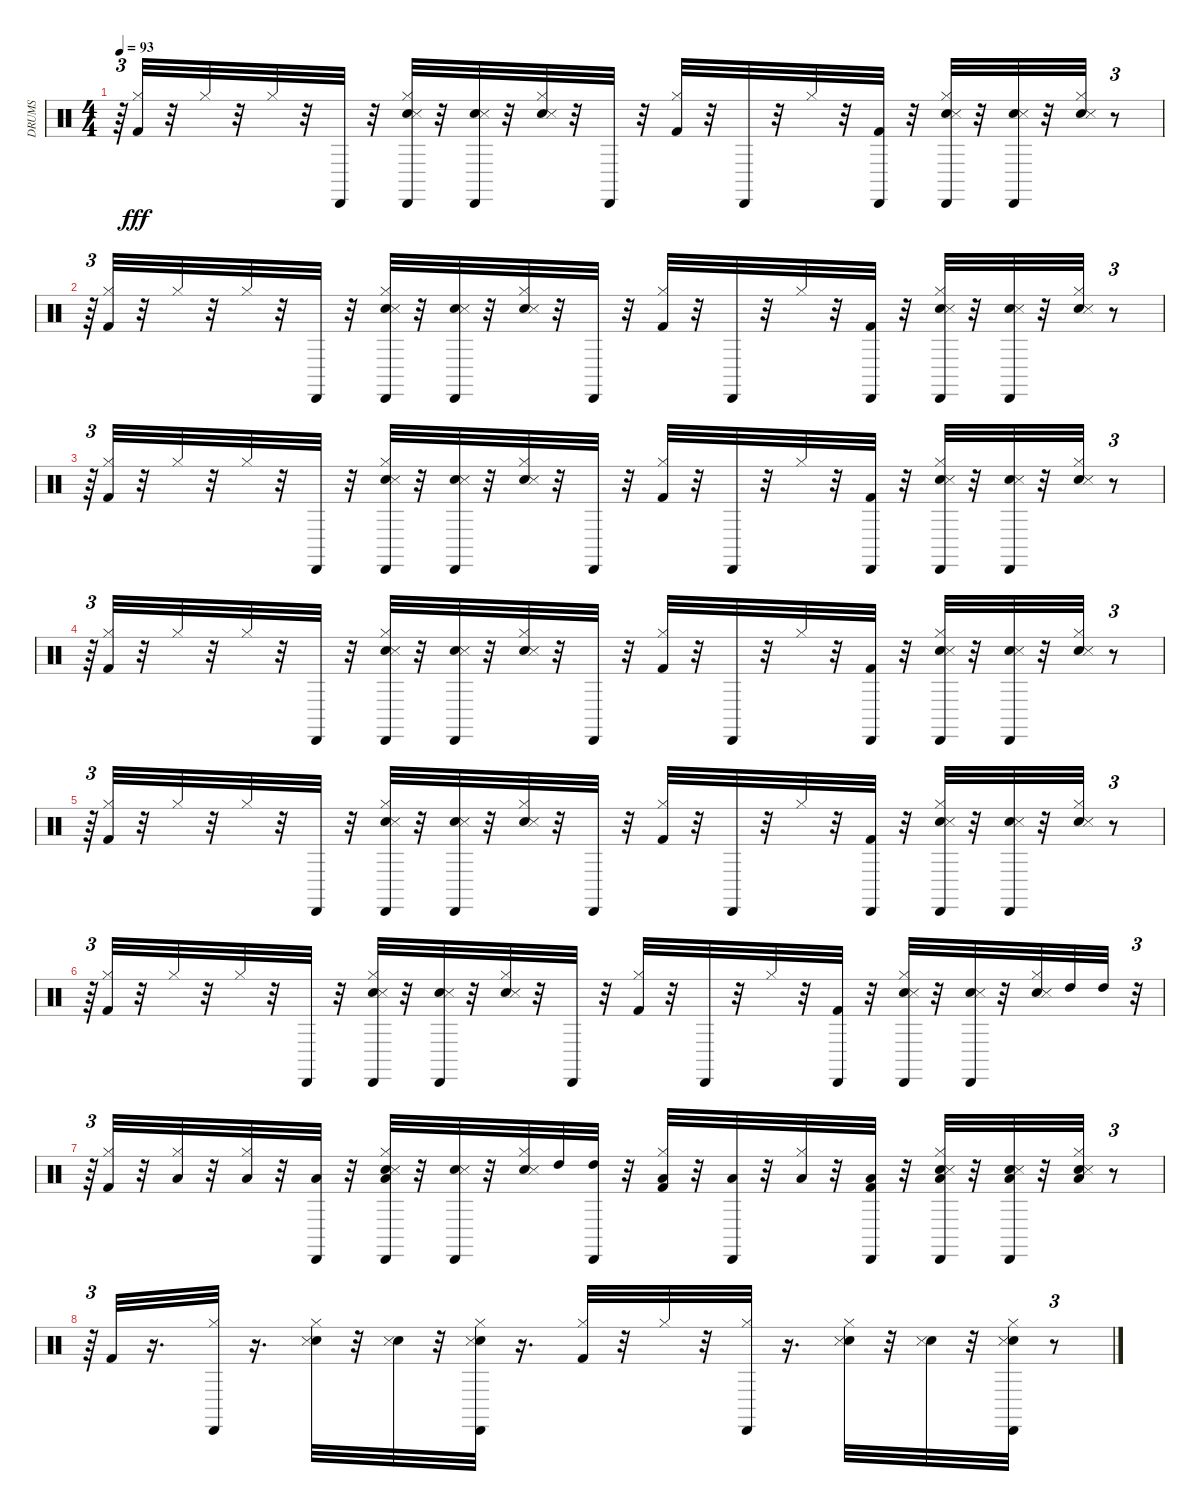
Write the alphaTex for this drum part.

\track ("DRUMS   " "DRUMS   ") {instrument percussion}
\staff {score}
\articulation defaults
\ts (4 4)
\tempo 93
\clef neutral
\ks c
r.64{tu (3 2) dy fff} ("Kick (hit) 2" "Hi-Hat (closed)").32 r.32 "Hi-Hat (closed)".32 r.32 "Hi-Hat (closed)".32 r.32 "Cabasa (hit)".32 r.32 ("Snare (hit) 2" "Hi-Hat (closed)" "Snare (side stick) 3" "Cabasa (hit)").32 r.32 ("Snare (hit) 2" "Snare (side stick) 3" "Cabasa (hit)").32 r.32 ("Snare (hit) 2" "Hi-Hat (closed)" "Snare (side stick) 3").32 r.32 "Cabasa (hit)".32 r.32 ("Kick (hit) 2" "Hi-Hat (closed)").32 r.32 "Cabasa (hit)".32 r.32 "Hi-Hat (closed)".32 r.32 ("Kick (hit) 2" "Cabasa (hit)").32 r.32 ("Snare (hit) 2" "Hi-Hat (closed)" "Snare (side stick) 3" "Cabasa (hit)").32 r.32 ("Snare (hit) 2" "Snare (side stick) 3" "Cabasa (hit)").32 r.32 ("Snare (hit) 2" "Hi-Hat (closed)" "Snare (side stick) 3").32 r.8{tu (3 2)} |
r.64{tu (3 2)} ("Kick (hit) 2" "Hi-Hat (closed)").32 r.32 "Hi-Hat (closed)".32 r.32 "Hi-Hat (closed)".32 r.32 "Cabasa (hit)".32 r.32 ("Snare (hit) 2" "Hi-Hat (closed)" "Snare (side stick) 3" "Cabasa (hit)").32 r.32 ("Snare (hit) 2" "Snare (side stick) 3" "Cabasa (hit)").32 r.32 ("Snare (hit) 2" "Hi-Hat (closed)" "Snare (side stick) 3").32 r.32 "Cabasa (hit)".32 r.32 ("Kick (hit) 2" "Hi-Hat (closed)").32 r.32 "Cabasa (hit)".32 r.32 "Hi-Hat (closed)".32 r.32 ("Kick (hit) 2" "Cabasa (hit)").32 r.32 ("Snare (hit) 2" "Hi-Hat (closed)" "Snare (side stick) 3" "Cabasa (hit)").32 r.32 ("Snare (hit) 2" "Snare (side stick) 3" "Cabasa (hit)").32 r.32 ("Snare (hit) 2" "Hi-Hat (closed)" "Snare (side stick) 3").32 r.8{tu (3 2)} |
r.64{tu (3 2)} ("Kick (hit) 2" "Hi-Hat (closed)").32 r.32 "Hi-Hat (closed)".32 r.32 "Hi-Hat (closed)".32 r.32 "Cabasa (hit)".32 r.32 ("Snare (hit) 2" "Hi-Hat (closed)" "Snare (side stick) 3" "Cabasa (hit)").32 r.32 ("Snare (hit) 2" "Snare (side stick) 3" "Cabasa (hit)").32 r.32 ("Snare (hit) 2" "Hi-Hat (closed)" "Snare (side stick) 3").32 r.32 "Cabasa (hit)".32 r.32 ("Kick (hit) 2" "Hi-Hat (closed)").32 r.32 "Cabasa (hit)".32 r.32 "Hi-Hat (closed)".32 r.32 ("Kick (hit) 2" "Cabasa (hit)").32 r.32 ("Snare (hit) 2" "Hi-Hat (closed)" "Snare (side stick) 3" "Cabasa (hit)").32 r.32 ("Snare (hit) 2" "Snare (side stick) 3" "Cabasa (hit)").32 r.32 ("Snare (hit) 2" "Hi-Hat (closed)" "Snare (side stick) 3").32 r.8{tu (3 2)} |
r.64{tu (3 2)} ("Kick (hit) 2" "Hi-Hat (closed)").32 r.32 "Hi-Hat (closed)".32 r.32 "Hi-Hat (closed)".32 r.32 "Cabasa (hit)".32 r.32 ("Snare (hit) 2" "Hi-Hat (closed)" "Snare (side stick) 3" "Cabasa (hit)").32 r.32 ("Snare (hit) 2" "Snare (side stick) 3" "Cabasa (hit)").32 r.32 ("Snare (hit) 2" "Hi-Hat (closed)" "Snare (side stick) 3").32 r.32 "Cabasa (hit)".32 r.32 ("Kick (hit) 2" "Hi-Hat (closed)").32 r.32 "Cabasa (hit)".32 r.32 "Hi-Hat (closed)".32 r.32 ("Kick (hit) 2" "Cabasa (hit)").32 r.32 ("Snare (hit) 2" "Hi-Hat (closed)" "Snare (side stick) 3" "Cabasa (hit)").32 r.32 ("Snare (hit) 2" "Snare (side stick) 3" "Cabasa (hit)").32 r.32 ("Snare (hit) 2" "Hi-Hat (closed)" "Snare (side stick) 3").32 r.8{tu (3 2)} |
r.64{tu (3 2)} ("Kick (hit) 2" "Hi-Hat (closed)").32 r.32 "Hi-Hat (closed)".32 r.32 "Hi-Hat (closed)".32 r.32 "Cabasa (hit)".32 r.32 ("Snare (hit) 2" "Hi-Hat (closed)" "Snare (side stick) 3" "Cabasa (hit)").32 r.32 ("Snare (hit) 2" "Snare (side stick) 3" "Cabasa (hit)").32 r.32 ("Snare (hit) 2" "Hi-Hat (closed)" "Snare (side stick) 3").32 r.32 "Cabasa (hit)".32 r.32 ("Kick (hit) 2" "Hi-Hat (closed)").32 r.32 "Cabasa (hit)".32 r.32 "Hi-Hat (closed)".32 r.32 ("Kick (hit) 2" "Cabasa (hit)").32 r.32 ("Snare (hit) 2" "Hi-Hat (closed)" "Snare (side stick) 3" "Cabasa (hit)").32 r.32 ("Snare (hit) 2" "Snare (side stick) 3" "Cabasa (hit)").32 r.32 ("Snare (hit) 2" "Hi-Hat (closed)" "Snare (side stick) 3").32 r.8{tu (3 2)} |
r.64{tu (3 2)} ("Kick (hit) 2" "Hi-Hat (closed)").32 r.32 "Hi-Hat (closed)".32 r.32 "Hi-Hat (closed)".32 r.32 "Cabasa (hit)".32 r.32 ("Snare (hit) 2" "Hi-Hat (closed)" "Snare (side stick) 3" "Cabasa (hit)").32 r.32 ("Snare (hit) 2" "Snare (side stick) 3" "Cabasa (hit)").32 r.32 ("Snare (hit) 2" "Hi-Hat (closed)" "Snare (side stick) 3").32 r.32 "Cabasa (hit)".32 r.32 ("Kick (hit) 2" "Hi-Hat (closed)").32 r.32 "Cabasa (hit)".32 r.32 "Hi-Hat (closed)".32 r.32 ("Kick (hit) 2" "Cabasa (hit)").32 r.32 ("Snare (hit) 2" "Hi-Hat (closed)" "Snare (side stick) 3" "Cabasa (hit)").32 r.32 ("Snare (hit) 2" "Snare (side stick) 3" "Cabasa (hit)").32 r.32 ("Snare (hit) 2" "Hi-Hat (closed)" "Snare (side stick) 3").32 "High Tom (hit)".32 "High Tom (hit)".32 r.32{tu (3 2)} |
r.64{tu (3 2)} ("Kick (hit) 2" "Hi-Hat (closed)").32 r.32 ("Hi-Hat (closed)" "Low Floor Tom (hit)").32 r.32 ("Hi-Hat (closed)" "Low Floor Tom (hit)").32 r.32 ("Low Floor Tom (hit)" "Cabasa (hit)").32 r.32 ("Snare (hit) 2" "Hi-Hat (closed)" "Low Floor Tom (hit)" "Snare (side stick) 3" "Cabasa (hit)").32 r.32 ("Snare (hit) 2" "Snare (side stick) 3" "Cabasa (hit)").32 r.32 ("Snare (hit) 2" "Hi-Hat (closed)" "Snare (side stick) 3").32 "High Tom (hit)".32 ("High Tom (hit)" "Cabasa (hit)").32 r.32 ("Kick (hit) 2" "Hi-Hat (closed)" "Low Tom (hit)").32 r.32 ("Low Tom (hit)" "Cabasa (hit)").32 r.32 ("Hi-Hat (closed)" "Low Tom (hit)").32 r.32 ("Kick (hit) 2" "Low Floor Tom (hit)" "Cabasa (hit)").32 r.32 ("Snare (hit) 2" "Hi-Hat (closed)" "Low Floor Tom (hit)" "Snare (side stick) 3" "Cabasa (hit)").32 r.32 ("Snare (hit) 2" "Low Floor Tom (hit)" "Snare (side stick) 3" "Cabasa (hit)").32 r.32 ("Snare (hit) 2" "Hi-Hat (closed)" "Low Floor Tom (hit)" "Snare (side stick) 3").32 r.8{tu (3 2)} |
r.64{tu (3 2)} "Kick (hit) 2".32 r.16{d} ("Hi-Hat (closed)" "Cabasa (hit)").32 r.16{d} ("Snare (hit) 2" "Hi-Hat (closed)" "Snare (side stick) 3").32 r.32 ("Snare (hit) 2" "Snare (side stick) 3").32 r.32 ("Snare (hit) 2" "Hi-Hat (closed)" "Snare (side stick) 3" "Cabasa (hit)").32 r.16{d} ("Kick (hit) 2" "Hi-Hat (closed)").32 r.32 "Hi-Hat (closed)".32 r.32 ("Hi-Hat (closed)" "Cabasa (hit)").32 r.16{d} ("Snare (hit) 2" "Hi-Hat (closed)" "Snare (side stick) 3").32 r.32 ("Snare (hit) 2" "Snare (side stick) 3").32 r.32 ("Snare (hit) 2" "Hi-Hat (closed)" "Snare (side stick) 3" "Cabasa (hit)").32 r.8{tu (3 2)}
